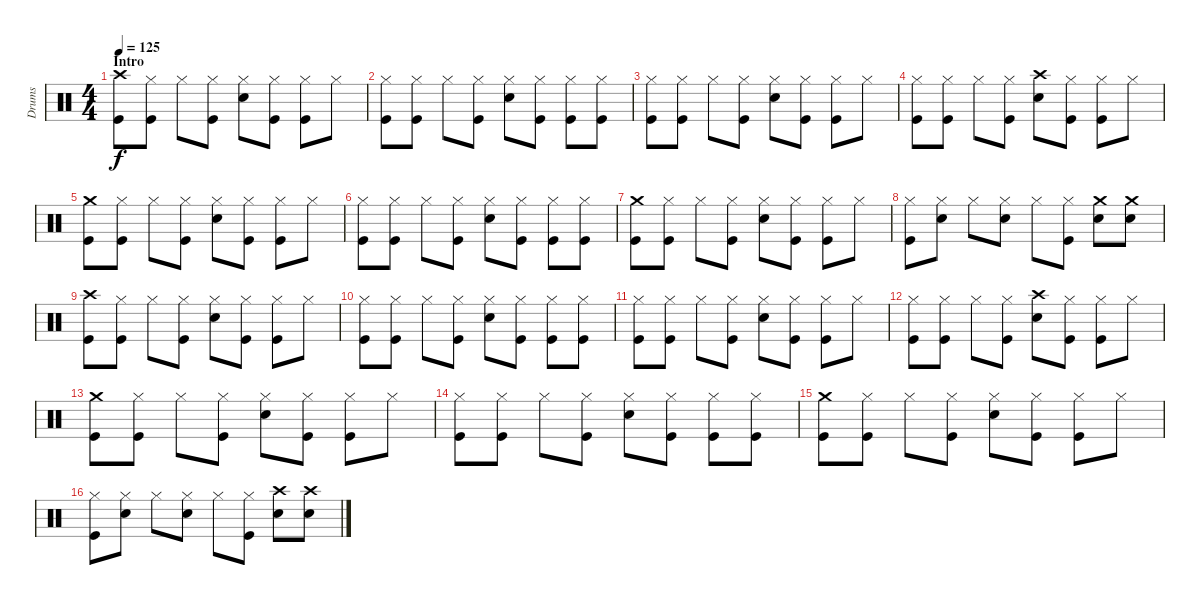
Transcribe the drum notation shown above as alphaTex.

\track ("Drums" "Drums") {instrument percussion}
\staff {score}
\articulation defaults
\ts (4 4)
\section ("" "Intro")
\tempo 125
\clef neutral
\ks c
("Kick (hit)" "Crash high (hit)").8{dy f} ("Kick (hit)" "Hi-Hat (closed)").8 "Hi-Hat (closed)".8 ("Kick (hit)" "Hi-Hat (closed)").8 ("Electric Snare (hit)" "Hi-Hat (closed)").8 ("Kick (hit)" "Hi-Hat (closed)").8 ("Kick (hit)" "Hi-Hat (closed)").8 "Hi-Hat (closed)".8 |
("Kick (hit)" "Hi-Hat (closed)").8 ("Kick (hit)" "Hi-Hat (closed)").8 "Hi-Hat (closed)".8 ("Kick (hit)" "Hi-Hat (closed)").8 ("Electric Snare (hit)" "Hi-Hat (closed)").8 ("Kick (hit)" "Hi-Hat (closed)").8 ("Kick (hit)" "Hi-Hat (closed)").8 ("Kick (hit)" "Hi-Hat (closed)").8 |
("Kick (hit)" "Hi-Hat (closed)").8 ("Kick (hit)" "Hi-Hat (closed)").8 "Hi-Hat (closed)".8 ("Kick (hit)" "Hi-Hat (closed)").8 ("Electric Snare (hit)" "Hi-Hat (closed)").8 ("Kick (hit)" "Hi-Hat (closed)").8 ("Kick (hit)" "Hi-Hat (closed)").8 "Hi-Hat (closed)".8 |
("Kick (hit)" "Hi-Hat (closed)").8 ("Kick (hit)" "Hi-Hat (closed)").8 "Hi-Hat (closed)".8 ("Kick (hit)" "Hi-Hat (closed)").8 ("Electric Snare (hit)" "Crash high (hit)").8 ("Kick (hit)" "Hi-Hat (closed)").8 ("Kick (hit)" "Hi-Hat (closed)").8 "Hi-Hat (closed)".8 |
("Kick (hit)" "Crash medium (hit)").8 ("Kick (hit)" "Hi-Hat (closed)").8 "Hi-Hat (closed)".8 ("Kick (hit)" "Hi-Hat (closed)").8 ("Electric Snare (hit)" "Hi-Hat (closed)").8 ("Kick (hit)" "Hi-Hat (closed)").8 ("Kick (hit)" "Hi-Hat (closed)").8 "Hi-Hat (closed)".8 |
("Kick (hit)" "Hi-Hat (closed)").8 ("Kick (hit)" "Hi-Hat (closed)").8 "Hi-Hat (closed)".8 ("Kick (hit)" "Hi-Hat (closed)").8 ("Electric Snare (hit)" "Hi-Hat (closed)").8 ("Kick (hit)" "Hi-Hat (closed)").8 ("Kick (hit)" "Hi-Hat (closed)").8 ("Kick (hit)" "Hi-Hat (closed)").8 |
("Kick (hit)" "Crash medium (hit)").8 ("Kick (hit)" "Hi-Hat (closed)").8 "Hi-Hat (closed)".8 ("Kick (hit)" "Hi-Hat (closed)").8 ("Electric Snare (hit)" "Hi-Hat (closed)").8 ("Kick (hit)" "Hi-Hat (closed)").8 ("Kick (hit)" "Hi-Hat (closed)").8 "Hi-Hat (closed)".8 |
("Kick (hit)" "Hi-Hat (closed)").8 ("Electric Snare (hit)" "Hi-Hat (closed)").8 "Hi-Hat (closed)".8 ("Electric Snare (hit)" "Hi-Hat (closed)").8 "Hi-Hat (closed)".8 ("Kick (hit)" "Hi-Hat (closed)").8 ("Electric Snare (hit)" "Crash medium (hit)").8 ("Electric Snare (hit)" "Crash medium (hit)").8 |
("Kick (hit)" "Crash high (hit)").8 ("Kick (hit)" "Hi-Hat (closed)").8 "Hi-Hat (closed)".8 ("Kick (hit)" "Hi-Hat (closed)").8 ("Electric Snare (hit)" "Hi-Hat (closed)").8 ("Kick (hit)" "Hi-Hat (closed)").8 ("Kick (hit)" "Hi-Hat (closed)").8 "Hi-Hat (closed)".8 |
("Kick (hit)" "Hi-Hat (closed)").8 ("Kick (hit)" "Hi-Hat (closed)").8 "Hi-Hat (closed)".8 ("Kick (hit)" "Hi-Hat (closed)").8 ("Electric Snare (hit)" "Hi-Hat (closed)").8 ("Kick (hit)" "Hi-Hat (closed)").8 ("Kick (hit)" "Hi-Hat (closed)").8 ("Kick (hit)" "Hi-Hat (closed)").8 |
("Kick (hit)" "Hi-Hat (closed)").8 ("Kick (hit)" "Hi-Hat (closed)").8 "Hi-Hat (closed)".8 ("Kick (hit)" "Hi-Hat (closed)").8 ("Electric Snare (hit)" "Hi-Hat (closed)").8 ("Kick (hit)" "Hi-Hat (closed)").8 ("Kick (hit)" "Hi-Hat (closed)").8 "Hi-Hat (closed)".8 |
("Kick (hit)" "Hi-Hat (closed)").8 ("Kick (hit)" "Hi-Hat (closed)").8 "Hi-Hat (closed)".8 ("Kick (hit)" "Hi-Hat (closed)").8 ("Electric Snare (hit)" "Crash high (hit)").8 ("Kick (hit)" "Hi-Hat (closed)").8 ("Kick (hit)" "Hi-Hat (closed)").8 "Hi-Hat (closed)".8 |
("Kick (hit)" "Crash medium (hit)").8 ("Kick (hit)" "Hi-Hat (closed)").8 "Hi-Hat (closed)".8 ("Kick (hit)" "Hi-Hat (closed)").8 ("Electric Snare (hit)" "Hi-Hat (closed)").8 ("Kick (hit)" "Hi-Hat (closed)").8 ("Kick (hit)" "Hi-Hat (closed)").8 "Hi-Hat (closed)".8 |
("Kick (hit)" "Hi-Hat (closed)").8 ("Kick (hit)" "Hi-Hat (closed)").8 "Hi-Hat (closed)".8 ("Kick (hit)" "Hi-Hat (closed)").8 ("Electric Snare (hit)" "Hi-Hat (closed)").8 ("Kick (hit)" "Hi-Hat (closed)").8 ("Kick (hit)" "Hi-Hat (closed)").8 ("Kick (hit)" "Hi-Hat (closed)").8 |
("Kick (hit)" "Crash medium (hit)").8 ("Kick (hit)" "Hi-Hat (closed)").8 "Hi-Hat (closed)".8 ("Kick (hit)" "Hi-Hat (closed)").8 ("Electric Snare (hit)" "Hi-Hat (closed)").8 ("Kick (hit)" "Hi-Hat (closed)").8 ("Kick (hit)" "Hi-Hat (closed)").8 "Hi-Hat (closed)".8 |
("Kick (hit)" "Hi-Hat (closed)").8 ("Electric Snare (hit)" "Hi-Hat (closed)").8 "Hi-Hat (closed)".8 ("Electric Snare (hit)" "Hi-Hat (closed)").8 "Hi-Hat (closed)".8 ("Kick (hit)" "Hi-Hat (closed)").8 ("Electric Snare (hit)" "Crash high (hit)").8 ("Electric Snare (hit)" "Crash high (hit)").8
